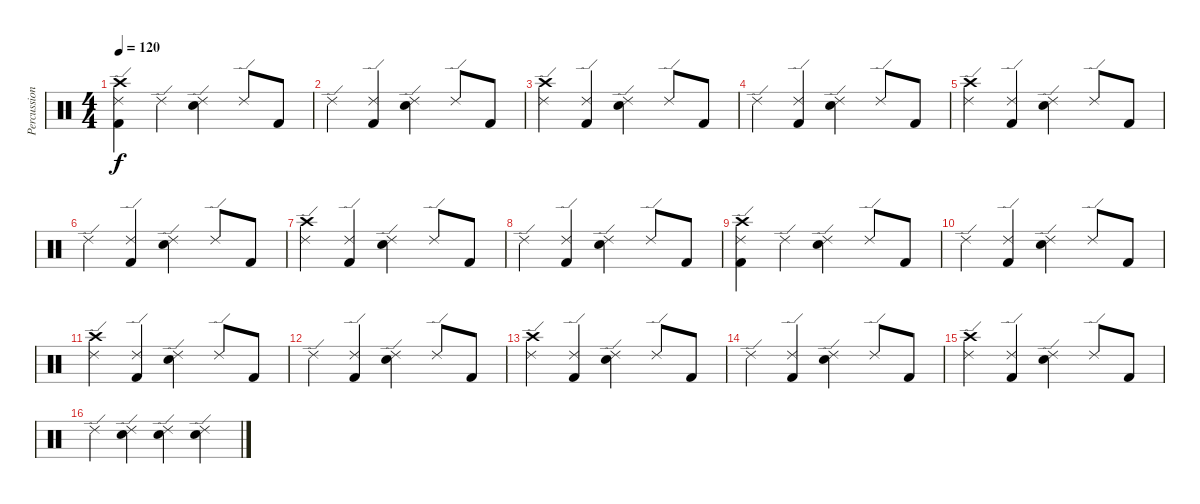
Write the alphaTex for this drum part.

\track ("Percussion" "Percussion") {instrument percussion}
\staff {score}
\articulation defaults
\ts (4 4)
\tempo 120
\clef neutral
\ks c
("Crash high (hit)" "Ride (edge) 2" "Kick (hit) 2").4{dy f} "Ride (edge) 2".4 ("Ride (edge) 2" "Electric Snare (hit)").4 "Ride (edge) 2".8 "Kick (hit) 2".8 |
"Ride (edge) 2".4 ("Ride (edge) 2" "Kick (hit) 2").4 ("Ride (edge) 2" "Electric Snare (hit)").4 "Ride (edge) 2".8 "Kick (hit) 2".8 |
("Crash high (hit)" "Ride (edge) 2").4 ("Ride (edge) 2" "Kick (hit) 2").4 ("Ride (edge) 2" "Electric Snare (hit)").4 "Ride (edge) 2".8 "Kick (hit) 2".8 |
"Ride (edge) 2".4 ("Ride (edge) 2" "Kick (hit) 2").4 ("Ride (edge) 2" "Electric Snare (hit)").4 "Ride (edge) 2".8 "Kick (hit) 2".8 |
("Crash high (hit)" "Ride (edge) 2").4 ("Ride (edge) 2" "Kick (hit) 2").4 ("Ride (edge) 2" "Electric Snare (hit)").4 "Ride (edge) 2".8 "Kick (hit) 2".8 |
"Ride (edge) 2".4 ("Ride (edge) 2" "Kick (hit) 2").4 ("Ride (edge) 2" "Electric Snare (hit)").4 "Ride (edge) 2".8 "Kick (hit) 2".8 |
("Crash high (hit)" "Ride (edge) 2").4 ("Ride (edge) 2" "Kick (hit) 2").4 ("Ride (edge) 2" "Electric Snare (hit)").4 "Ride (edge) 2".8 "Kick (hit) 2".8 |
"Ride (edge) 2".4 ("Ride (edge) 2" "Kick (hit) 2").4 ("Ride (edge) 2" "Electric Snare (hit)").4 "Ride (edge) 2".8 "Kick (hit) 2".8 |
("Crash high (hit)" "Ride (edge) 2" "Kick (hit) 2").4 "Ride (edge) 2".4 ("Ride (edge) 2" "Electric Snare (hit)").4 "Ride (edge) 2".8 "Kick (hit) 2".8 |
"Ride (edge) 2".4 ("Ride (edge) 2" "Kick (hit) 2").4 ("Ride (edge) 2" "Electric Snare (hit)").4 "Ride (edge) 2".8 "Kick (hit) 2".8 |
("Crash high (hit)" "Ride (edge) 2").4 ("Ride (edge) 2" "Kick (hit) 2").4 ("Ride (edge) 2" "Electric Snare (hit)").4 "Ride (edge) 2".8 "Kick (hit) 2".8 |
"Ride (edge) 2".4 ("Ride (edge) 2" "Kick (hit) 2").4 ("Ride (edge) 2" "Electric Snare (hit)").4 "Ride (edge) 2".8 "Kick (hit) 2".8 |
("Crash high (hit)" "Ride (edge) 2").4 ("Ride (edge) 2" "Kick (hit) 2").4 ("Ride (edge) 2" "Electric Snare (hit)").4 "Ride (edge) 2".8 "Kick (hit) 2".8 |
"Ride (edge) 2".4 ("Ride (edge) 2" "Kick (hit) 2").4 ("Ride (edge) 2" "Electric Snare (hit)").4 "Ride (edge) 2".8 "Kick (hit) 2".8 |
("Crash high (hit)" "Ride (edge) 2").4 ("Ride (edge) 2" "Kick (hit) 2").4 ("Ride (edge) 2" "Electric Snare (hit)").4 "Ride (edge) 2".8 "Kick (hit) 2".8 |
"Ride (edge) 2".4 ("Ride (edge) 2" "Electric Snare (hit)").4 ("Ride (edge) 2" "Electric Snare (hit)").4 ("Ride (edge) 2" "Electric Snare (hit)").4
